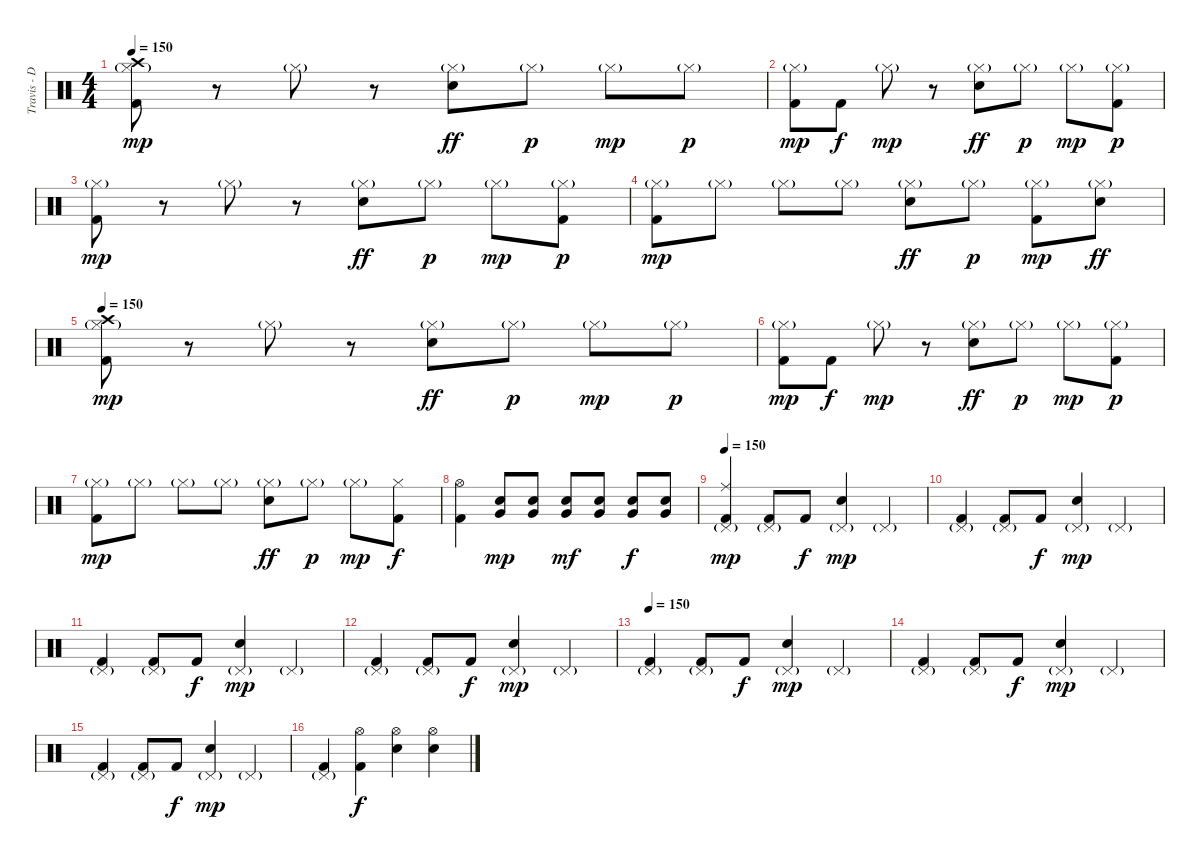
\track ("Travis - Drums" "Travis - D") {instrument percussion}
\staff {score}
\articulation defaults
\ts (4 4)
\tempo 150
\clef neutral
\ks c
("Crash high (hit)" "Hi-Hat (closed)"{g} "Kick (hit) 2").8{dy mp} r.8 "Hi-Hat (closed)"{g}.8 r.8 ("Hi-Hat (closed)"{g} "Electric Snare (hit)").8{dy ff} "Hi-Hat (closed)"{g}.8{dy p} "Hi-Hat (closed)"{g}.8{dy mp} "Hi-Hat (closed)"{g}.8{dy p} |
("Hi-Hat (closed)"{g} "Kick (hit) 2").8{dy mp} "Kick (hit) 2".8{dy f} "Hi-Hat (closed)"{g}.8{dy mp} r.8 ("Hi-Hat (closed)"{g} "Electric Snare (hit)").8{dy ff} "Hi-Hat (closed)"{g}.8{dy p} "Hi-Hat (closed)"{g}.8{dy mp} ("Hi-Hat (closed)"{g} "Kick (hit) 2").8{dy p} |
("Hi-Hat (closed)"{g} "Kick (hit) 2").8{dy mp} r.8 "Hi-Hat (closed)"{g}.8 r.8 ("Hi-Hat (closed)"{g} "Electric Snare (hit)").8{dy ff} "Hi-Hat (closed)"{g}.8{dy p} "Hi-Hat (closed)"{g}.8{dy mp} ("Hi-Hat (closed)"{g} "Kick (hit) 2").8{dy p} |
("Hi-Hat (closed)"{g} "Kick (hit) 2").8{dy mp} "Hi-Hat (closed)"{g}.8 "Hi-Hat (closed)"{g}.8 "Hi-Hat (closed)"{g}.8 ("Hi-Hat (closed)"{g} "Electric Snare (hit)").8{dy ff} "Hi-Hat (closed)"{g}.8{dy p} ("Hi-Hat (closed)"{g} "Kick (hit) 2").8{dy mp} ("Hi-Hat (closed)"{g} "Electric Snare (hit)").8{dy ff} |
\tempo 150
("Crash high (hit)" "Hi-Hat (closed)"{g} "Kick (hit) 2").8{dy mp} r.8 "Hi-Hat (closed)"{g}.8 r.8 ("Hi-Hat (closed)"{g} "Electric Snare (hit)").8{dy ff} "Hi-Hat (closed)"{g}.8{dy p} "Hi-Hat (closed)"{g}.8{dy mp} "Hi-Hat (closed)"{g}.8{dy p} |
("Hi-Hat (closed)"{g} "Kick (hit) 2").8{dy mp} "Kick (hit) 2".8{dy f} "Hi-Hat (closed)"{g}.8{dy mp} r.8 ("Hi-Hat (closed)"{g} "Electric Snare (hit)").8{dy ff} "Hi-Hat (closed)"{g}.8{dy p} "Hi-Hat (closed)"{g}.8{dy mp} ("Hi-Hat (closed)"{g} "Kick (hit) 2").8{dy p} |
("Hi-Hat (closed)"{g} "Kick (hit) 2").8{dy mp} "Hi-Hat (closed)"{g}.8 "Hi-Hat (closed)"{g}.8 "Hi-Hat (closed)"{g}.8 ("Hi-Hat (closed)"{g} "Electric Snare (hit)").8{dy ff} "Hi-Hat (closed)"{g}.8{dy p} "Hi-Hat (closed)"{g}.8{dy mp} ("Hi-Hat (closed)" "Kick (hit) 2").8{dy f} |
("Hi-Hat (open)" "Kick (hit) 2").4 ("Very Low Tom (hit)" "Electric Snare (hit)").8{dy mp} ("Very Low Tom (hit)" "Electric Snare (hit)").8 ("Very Low Tom (hit)" "Electric Snare (hit)").8{dy mf} ("Very Low Tom (hit)" "Electric Snare (hit)").8 ("Very Low Tom (hit)" "Electric Snare (hit)").8{dy f} ("Very Low Tom (hit)" "Electric Snare (hit)").8 |
\tempo 150
("Ride (middle)" "Pedal Hi-Hat (hit)"{g} "Kick (hit) 2").4{dy mp} ("Pedal Hi-Hat (hit)"{g} "Kick (hit) 2").8 "Kick (hit) 2".8{dy f} ("Pedal Hi-Hat (hit)"{g} "Electric Snare (hit)").4{dy mp} "Pedal Hi-Hat (hit)"{g}.4 |
("Pedal Hi-Hat (hit)"{g} "Kick (hit) 2").4 ("Pedal Hi-Hat (hit)"{g} "Kick (hit) 2").8 "Kick (hit) 2".8{dy f} ("Pedal Hi-Hat (hit)"{g} "Electric Snare (hit)").4{dy mp} "Pedal Hi-Hat (hit)"{g}.4 |
("Pedal Hi-Hat (hit)"{g} "Kick (hit) 2").4 ("Pedal Hi-Hat (hit)"{g} "Kick (hit) 2").8 "Kick (hit) 2".8{dy f} ("Pedal Hi-Hat (hit)"{g} "Electric Snare (hit)").4{dy mp} "Pedal Hi-Hat (hit)"{g}.4 |
("Pedal Hi-Hat (hit)"{g} "Kick (hit) 2").4 ("Pedal Hi-Hat (hit)"{g} "Kick (hit) 2").8 "Kick (hit) 2".8{dy f} ("Pedal Hi-Hat (hit)"{g} "Electric Snare (hit)").4{dy mp} "Pedal Hi-Hat (hit)"{g}.4 |
\tempo 150
("Pedal Hi-Hat (hit)"{g} "Kick (hit) 2").4 ("Pedal Hi-Hat (hit)"{g} "Kick (hit) 2").8 "Kick (hit) 2".8{dy f} ("Pedal Hi-Hat (hit)"{g} "Electric Snare (hit)").4{dy mp} "Pedal Hi-Hat (hit)"{g}.4 |
("Pedal Hi-Hat (hit)"{g} "Kick (hit) 2").4 ("Pedal Hi-Hat (hit)"{g} "Kick (hit) 2").8 "Kick (hit) 2".8{dy f} ("Pedal Hi-Hat (hit)"{g} "Electric Snare (hit)").4{dy mp} "Pedal Hi-Hat (hit)"{g}.4 |
("Pedal Hi-Hat (hit)"{g} "Kick (hit) 2").4 ("Pedal Hi-Hat (hit)"{g} "Kick (hit) 2").8 "Kick (hit) 2".8{dy f} ("Pedal Hi-Hat (hit)"{g} "Electric Snare (hit)").4{dy mp} "Pedal Hi-Hat (hit)"{g}.4 |
("Pedal Hi-Hat (hit)"{g} "Kick (hit) 2").4 ("Hi-Hat (open)" "Kick (hit) 2").4{dy f} ("Hi-Hat (open)" "Electric Snare (hit)").4 ("Hi-Hat (open)" "Electric Snare (hit)").4
